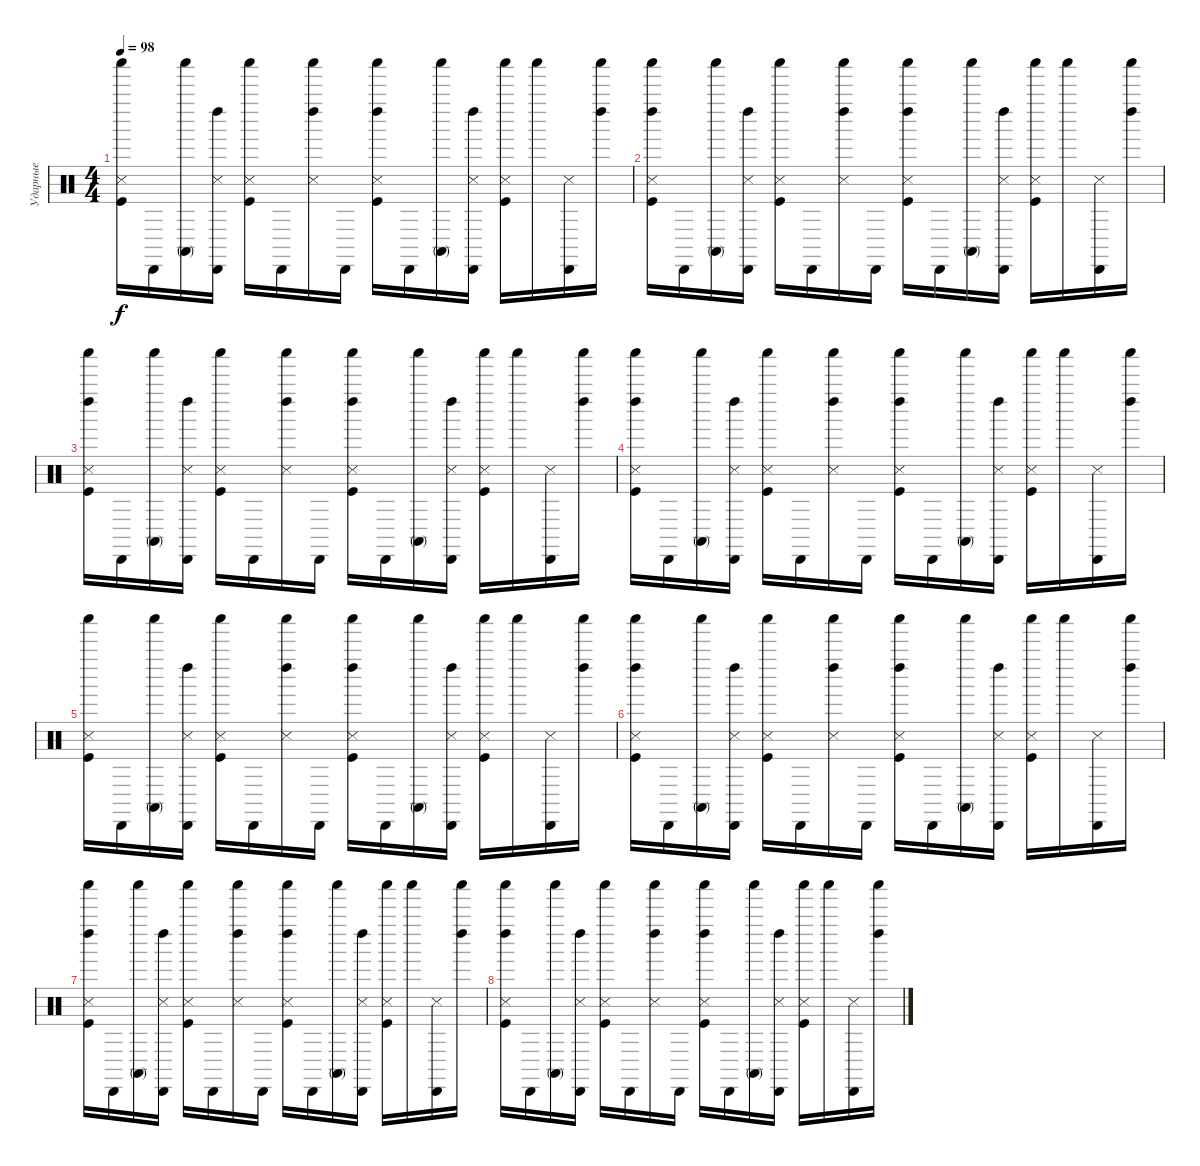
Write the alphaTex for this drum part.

\track ("Ударные" "Ударные") {instrument percussion}
\staff {score}
\articulation defaults
\ts (4 4)
\tempo 98
\clef neutral
\ks c
("Snare (side stick) 3" "Kick (hit)" "Shaker (hit)").16{dy f} "Cabasa (hit)".16 ("Conga high (mute)" "Shaker (hit)").16 ("Snare (side stick) 3" "Left Maraca (hit)" "Cabasa (hit)").16 ("Kick (hit)" "Snare (side stick) 3" "Shaker (hit)").16 "Cabasa (hit)".16 ("Snare (side stick) 3" "Left Maraca (hit)" "Shaker (hit)").16 "Cabasa (hit)".16 ("Snare (side stick) 3" "Kick (hit)" "Left Maraca (hit)" "Shaker (hit)").16 "Cabasa (hit)".16 ("Conga high (mute)" "Shaker (hit)").16 ("Snare (side stick) 3" "Left Maraca (hit)" "Cabasa (hit)").16 ("Kick (hit)" "Snare (side stick) 3" "Shaker (hit)").16 "Shaker (hit)".16 ("Snare (side stick) 3" "Cabasa (hit)").16 ("Left Maraca (hit)" "Shaker (hit)").16 |
("Snare (side stick) 3" "Kick (hit)" "Left Maraca (hit)" "Shaker (hit)").16 "Cabasa (hit)".16 ("Conga high (mute)" "Shaker (hit)").16 ("Snare (side stick) 3" "Left Maraca (hit)" "Cabasa (hit)").16 ("Kick (hit)" "Snare (side stick) 3" "Shaker (hit)").16 "Cabasa (hit)".16 ("Snare (side stick) 3" "Left Maraca (hit)" "Shaker (hit)").16 "Cabasa (hit)".16 ("Snare (side stick) 3" "Kick (hit)" "Left Maraca (hit)" "Shaker (hit)").16 "Cabasa (hit)".16 ("Conga high (mute)" "Shaker (hit)").16 ("Snare (side stick) 3" "Left Maraca (hit)" "Cabasa (hit)").16 ("Kick (hit)" "Snare (side stick) 3" "Shaker (hit)").16 "Shaker (hit)".16 ("Snare (side stick) 3" "Cabasa (hit)").16 ("Left Maraca (hit)" "Shaker (hit)").16 |
("Snare (side stick) 3" "Kick (hit)" "Left Maraca (hit)" "Shaker (hit)").16 "Cabasa (hit)".16 ("Conga high (mute)" "Shaker (hit)").16 ("Snare (side stick) 3" "Left Maraca (hit)" "Cabasa (hit)").16 ("Kick (hit)" "Snare (side stick) 3" "Shaker (hit)").16 "Cabasa (hit)".16 ("Snare (side stick) 3" "Left Maraca (hit)" "Shaker (hit)").16 "Cabasa (hit)".16 ("Snare (side stick) 3" "Kick (hit)" "Left Maraca (hit)" "Shaker (hit)").16 "Cabasa (hit)".16 ("Conga high (mute)" "Shaker (hit)").16 ("Snare (side stick) 3" "Left Maraca (hit)" "Cabasa (hit)").16 ("Kick (hit)" "Snare (side stick) 3" "Shaker (hit)").16 "Shaker (hit)".16 ("Snare (side stick) 3" "Cabasa (hit)").16 ("Left Maraca (hit)" "Shaker (hit)").16 |
("Snare (side stick) 3" "Kick (hit)" "Left Maraca (hit)" "Shaker (hit)").16 "Cabasa (hit)".16 ("Conga high (mute)" "Shaker (hit)").16 ("Snare (side stick) 3" "Left Maraca (hit)" "Cabasa (hit)").16 ("Kick (hit)" "Snare (side stick) 3" "Shaker (hit)").16 "Cabasa (hit)".16 ("Snare (side stick) 3" "Left Maraca (hit)" "Shaker (hit)").16 "Cabasa (hit)".16 ("Snare (side stick) 3" "Kick (hit)" "Left Maraca (hit)" "Shaker (hit)").16 "Cabasa (hit)".16 ("Conga high (mute)" "Shaker (hit)").16 ("Snare (side stick) 3" "Left Maraca (hit)" "Cabasa (hit)").16 ("Kick (hit)" "Snare (side stick) 3" "Shaker (hit)").16 "Shaker (hit)".16 ("Snare (side stick) 3" "Cabasa (hit)").16 ("Left Maraca (hit)" "Shaker (hit)").16 |
("Snare (side stick) 3" "Kick (hit)" "Shaker (hit)").16 "Cabasa (hit)".16 ("Conga high (mute)" "Shaker (hit)").16 ("Snare (side stick) 3" "Left Maraca (hit)" "Cabasa (hit)").16 ("Kick (hit)" "Snare (side stick) 3" "Shaker (hit)").16 "Cabasa (hit)".16 ("Snare (side stick) 3" "Left Maraca (hit)" "Shaker (hit)").16 "Cabasa (hit)".16 ("Snare (side stick) 3" "Kick (hit)" "Left Maraca (hit)" "Shaker (hit)").16 "Cabasa (hit)".16 ("Conga high (mute)" "Shaker (hit)").16 ("Snare (side stick) 3" "Left Maraca (hit)" "Cabasa (hit)").16 ("Kick (hit)" "Snare (side stick) 3" "Shaker (hit)").16 "Shaker (hit)".16 ("Snare (side stick) 3" "Cabasa (hit)").16 ("Left Maraca (hit)" "Shaker (hit)").16 |
("Snare (side stick) 3" "Kick (hit)" "Left Maraca (hit)" "Shaker (hit)").16 "Cabasa (hit)".16 ("Conga high (mute)" "Shaker (hit)").16 ("Snare (side stick) 3" "Left Maraca (hit)" "Cabasa (hit)").16 ("Kick (hit)" "Snare (side stick) 3" "Shaker (hit)").16 "Cabasa (hit)".16 ("Snare (side stick) 3" "Left Maraca (hit)" "Shaker (hit)").16 "Cabasa (hit)".16 ("Snare (side stick) 3" "Kick (hit)" "Left Maraca (hit)" "Shaker (hit)").16 "Cabasa (hit)".16 ("Conga high (mute)" "Shaker (hit)").16 ("Snare (side stick) 3" "Left Maraca (hit)" "Cabasa (hit)").16 ("Kick (hit)" "Snare (side stick) 3" "Shaker (hit)").16 "Shaker (hit)".16 ("Snare (side stick) 3" "Cabasa (hit)").16 ("Left Maraca (hit)" "Shaker (hit)").16 |
("Snare (side stick) 3" "Kick (hit)" "Left Maraca (hit)" "Shaker (hit)").16 "Cabasa (hit)".16 ("Conga high (mute)" "Shaker (hit)").16 ("Snare (side stick) 3" "Left Maraca (hit)" "Cabasa (hit)").16 ("Kick (hit)" "Snare (side stick) 3" "Shaker (hit)").16 "Cabasa (hit)".16 ("Snare (side stick) 3" "Left Maraca (hit)" "Shaker (hit)").16 "Cabasa (hit)".16 ("Snare (side stick) 3" "Kick (hit)" "Left Maraca (hit)" "Shaker (hit)").16 "Cabasa (hit)".16 ("Conga high (mute)" "Shaker (hit)").16 ("Snare (side stick) 3" "Left Maraca (hit)" "Cabasa (hit)").16 ("Kick (hit)" "Snare (side stick) 3" "Shaker (hit)").16 "Shaker (hit)".16 ("Snare (side stick) 3" "Cabasa (hit)").16 ("Left Maraca (hit)" "Shaker (hit)").16 |
("Snare (side stick) 3" "Kick (hit)" "Left Maraca (hit)" "Shaker (hit)").16 "Cabasa (hit)".16 ("Conga high (mute)" "Shaker (hit)").16 ("Snare (side stick) 3" "Left Maraca (hit)" "Cabasa (hit)").16 ("Kick (hit)" "Snare (side stick) 3" "Shaker (hit)").16 "Cabasa (hit)".16 ("Snare (side stick) 3" "Left Maraca (hit)" "Shaker (hit)").16 "Cabasa (hit)".16 ("Snare (side stick) 3" "Kick (hit)" "Left Maraca (hit)" "Shaker (hit)").16 "Cabasa (hit)".16 ("Conga high (mute)" "Shaker (hit)").16 ("Snare (side stick) 3" "Left Maraca (hit)" "Cabasa (hit)").16 ("Kick (hit)" "Snare (side stick) 3" "Shaker (hit)").16 "Shaker (hit)".16 ("Snare (side stick) 3" "Cabasa (hit)").16 ("Left Maraca (hit)" "Shaker (hit)").16
